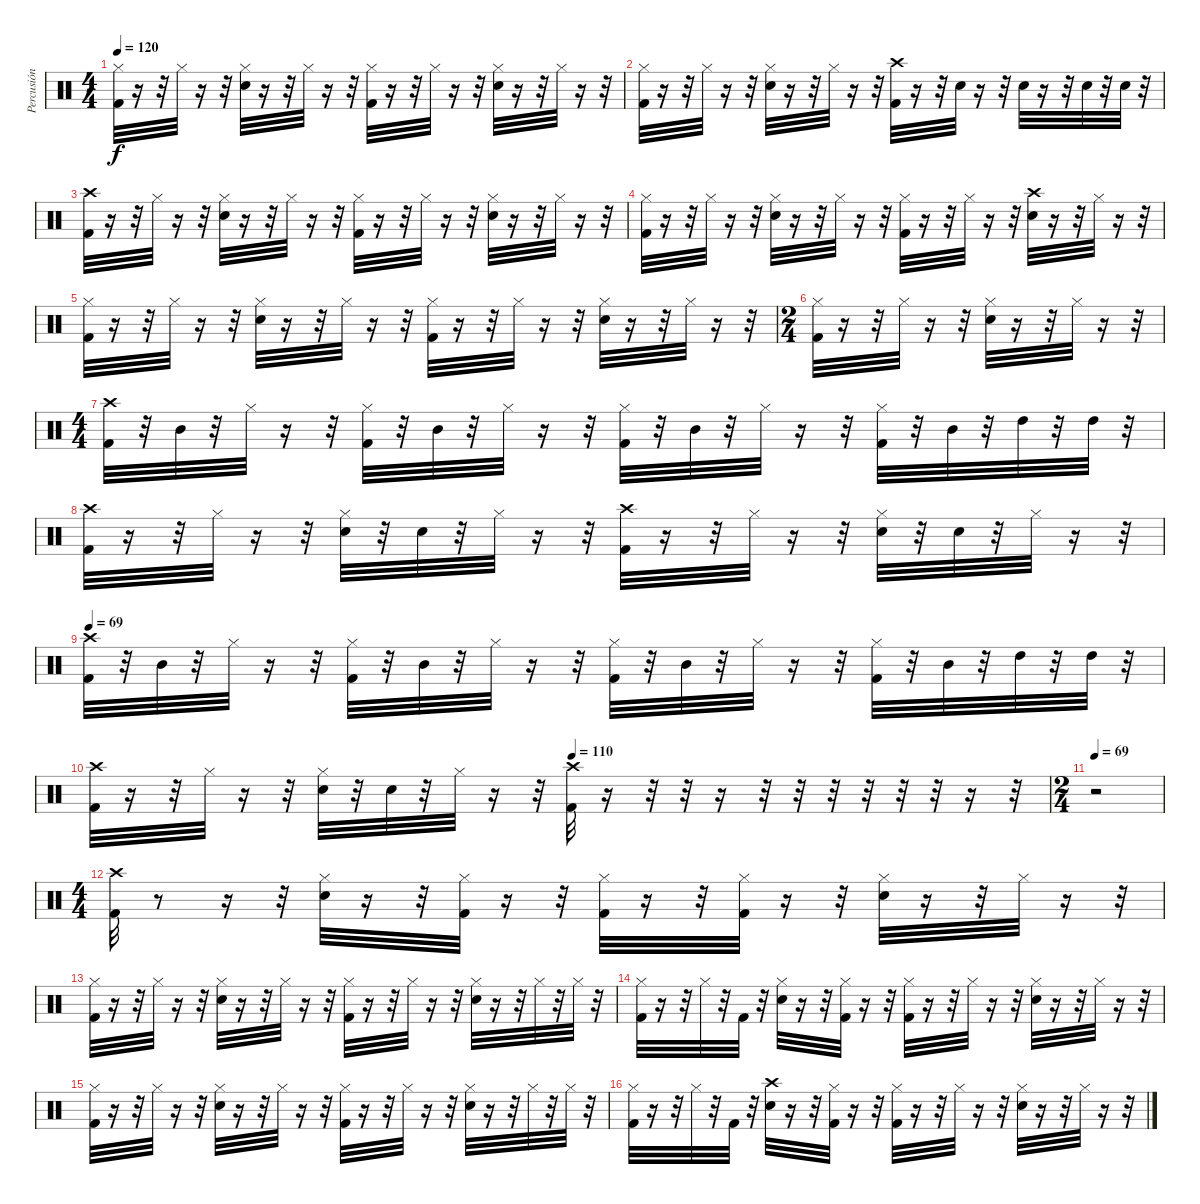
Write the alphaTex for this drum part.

\track ("Percusión" "Percusión") {instrument percussion}
\staff {score}
\articulation defaults
\ts (4 4)
\tempo 120
\clef neutral
\ks c
("Hi-Hat (closed)" "Kick (hit) 2").32{dy f} r.16 r.32 "Hi-Hat (closed)".32 r.16 r.32 ("Snare (hit) 2" "Hi-Hat (closed)").32 r.16 r.32 "Hi-Hat (closed)".32 r.16 r.32 ("Hi-Hat (closed)" "Kick (hit) 2").32 r.16 r.32 "Hi-Hat (closed)".32 r.16 r.32 ("Snare (hit) 2" "Hi-Hat (closed)").32 r.16 r.32 "Hi-Hat (closed)".32 r.16 r.32 |
("Kick (hit) 2" "Hi-Hat (closed)").32 r.16 r.32 "Hi-Hat (closed)".32 r.16 r.32 ("Snare (hit) 2" "Hi-Hat (closed)").32 r.16 r.32 "Hi-Hat (closed)".32 r.16 r.32 ("Crash high (hit)" "Kick (hit) 2").32 r.16 r.32 "Snare (hit) 2".32 r.16 r.32 "Snare (hit) 2".32 r.16 r.32 "Snare (hit) 2".32 r.32 "Snare (hit) 2".32 r.32 |
("Kick (hit) 2" "Crash high (hit)").32 r.16 r.32 "Hi-Hat (closed)".32 r.16 r.32 ("Snare (hit) 2" "Hi-Hat (closed)").32 r.16 r.32 "Hi-Hat (closed)".32 r.16 r.32 ("Hi-Hat (closed)" "Kick (hit) 2").32 r.16 r.32 "Hi-Hat (closed)".32 r.16 r.32 ("Snare (hit) 2" "Hi-Hat (closed)").32 r.16 r.32 "Hi-Hat (closed)".32 r.16 r.32 |
("Kick (hit) 2" "Hi-Hat (closed)").32 r.16 r.32 "Hi-Hat (closed)".32 r.16 r.32 ("Snare (hit) 2" "Hi-Hat (closed)").32 r.16 r.32 "Hi-Hat (closed)".32 r.16 r.32 ("Hi-Hat (closed)" "Kick (hit) 2").32 r.16 r.32 "Hi-Hat (closed)".32 r.16 r.32 ("Crash high (hit)" "Snare (hit) 2").32 r.16 r.32 "Hi-Hat (closed)".32 r.16 r.32 |
("Kick (hit) 2" "Hi-Hat (closed)").32 r.16 r.32 "Hi-Hat (closed)".32 r.16 r.32 ("Snare (hit) 2" "Hi-Hat (closed)").32 r.16 r.32 "Hi-Hat (closed)".32 r.16 r.32 ("Kick (hit) 2" "Hi-Hat (closed)").32 r.16 r.32 "Hi-Hat (closed)".32 r.16 r.32 ("Snare (hit) 2" "Hi-Hat (closed)").32 r.16 r.32 "Hi-Hat (closed)".32 r.16 r.32 |
\ts (2 4)
("Kick (hit) 2" "Hi-Hat (closed)").32 r.16 r.32 "Hi-Hat (closed)".32 r.16 r.32 ("Snare (hit) 2" "Hi-Hat (closed)").32 r.16 r.32 "Hi-Hat (closed)".32 r.16 r.32 |
\ts (4 4)
("Kick (hit) 2" "Crash high (hit)").32 r.32 "Mid Tom (hit)".32 r.32 "Hi-Hat (closed)".32 r.16 r.32 ("Hi-Hat (closed)" "Kick (hit) 2").32 r.32 "Mid Tom (hit)".32 r.32 "Hi-Hat (closed)".32 r.16 r.32 ("Hi-Hat (closed)" "Kick (hit) 2").32 r.32 "Mid Tom (hit)".32 r.32 "Hi-Hat (closed)".32 r.16 r.32 ("Hi-Hat (closed)" "Kick (hit) 2").32 r.32 "Mid Tom (hit)".32 r.32 "High Tom (hit)".32 r.32 "High Tom (hit)".32 r.32 |
("Kick (hit) 2" "Crash high (hit)").32 r.16 r.32 "Hi-Hat (closed)".32 r.16 r.32 ("Snare (hit) 2" "Hi-Hat (closed)").32 r.32 "Snare (hit) 2".32 r.32 "Hi-Hat (closed)".32 r.16 r.32 ("Crash high (hit)" "Kick (hit) 2").32 r.16 r.32 "Hi-Hat (closed)".32 r.16 r.32 ("Snare (hit) 2" "Hi-Hat (closed)").32 r.32 "Snare (hit) 2".32 r.32 "Hi-Hat (closed)".32 r.16 r.32 |
\tempo 69
("Kick (hit) 2" "Crash high (hit)").32 r.32 "Mid Tom (hit)".32 r.32 "Hi-Hat (closed)".32 r.16 r.32 ("Hi-Hat (closed)" "Kick (hit) 2").32 r.32 "Mid Tom (hit)".32 r.32 "Hi-Hat (closed)".32 r.16 r.32 ("Hi-Hat (closed)" "Kick (hit) 2").32 r.32 "Mid Tom (hit)".32 r.32 "Hi-Hat (closed)".32 r.16 r.32 ("Hi-Hat (closed)" "Kick (hit) 2").32 r.32 "Mid Tom (hit)".32 r.32 "High Tom (hit)".32 r.32 "High Tom (hit)".32 r.32 |
\tempo (110 0.5)
("Kick (hit) 2" "Crash high (hit)").32 r.16 r.32 "Hi-Hat (closed)".32 r.16 r.32 ("Snare (hit) 2" "Hi-Hat (closed)").32 r.32 "Snare (hit) 2".32 r.32 "Hi-Hat (closed)".32 r.16 r.32 ("Crash high (hit)" "Kick (hit) 2").32 r.16 r.32 r.32 r.16 r.32 r.32 r.32 r.32 r.32 r.32 r.16 r.32 |
\ts (2 4)
\tempo 69
r.2 |
\ts (4 4)
("Kick (hit) 2" "Crash high (hit)").32 r.8 r.16 r.32 ("Hi-Hat (closed)" "Snare (hit) 2").32 r.16 r.32 ("Hi-Hat (closed)" "Kick (hit) 2").32 r.16 r.32 ("Hi-Hat (closed)" "Kick (hit) 2").32 r.16 r.32 ("Hi-Hat (closed)" "Kick (hit) 2").32 r.16 r.32 ("Hi-Hat (closed)" "Snare (hit) 2").32 r.16 r.32 "Hi-Hat (closed)".32 r.16 r.32 |
("Hi-Hat (closed)" "Kick (hit) 2").32 r.16 r.32 "Hi-Hat (closed)".32 r.16 r.32 ("Snare (hit) 2" "Hi-Hat (closed)").32 r.16 r.32 "Hi-Hat (closed)".32 r.16 r.32 ("Hi-Hat (closed)" "Kick (hit) 2").32 r.16 r.32 "Hi-Hat (closed)".32 r.16 r.32 ("Hi-Hat (closed)" "Snare (hit) 2").32 r.16 r.32 "Hi-Hat (closed)".32 r.32 "Hi-Hat (closed)".32 r.32 |
("Hi-Hat (closed)" "Kick (hit) 2").32 r.16 r.32 "Hi-Hat (closed)".32 r.32 "Kick (hit) 2".32 r.32 ("Snare (hit) 2" "Hi-Hat (closed)").32 r.16 r.32 ("Kick (hit) 2" "Hi-Hat (closed)").32 r.16 r.32 ("Hi-Hat (closed)" "Kick (hit) 2").32 r.16 r.32 "Hi-Hat (closed)".32 r.16 r.32 ("Snare (hit) 2" "Hi-Hat (closed)").32 r.16 r.32 "Hi-Hat (closed)".32 r.16 r.32 |
("Hi-Hat (closed)" "Kick (hit) 2").32 r.16 r.32 "Hi-Hat (closed)".32 r.16 r.32 ("Snare (hit) 2" "Hi-Hat (closed)").32 r.16 r.32 "Hi-Hat (closed)".32 r.16 r.32 ("Kick (hit) 2" "Hi-Hat (closed)").32 r.16 r.32 "Hi-Hat (closed)".32 r.16 r.32 ("Hi-Hat (closed)" "Snare (hit) 2").32 r.16 r.32 "Hi-Hat (closed)".32 r.32 "Hi-Hat (closed)".32 r.32 |
("Hi-Hat (closed)" "Kick (hit) 2").32 r.16 r.32 "Hi-Hat (closed)".32 r.32 "Kick (hit) 2".32 r.32 ("Crash high (hit)" "Snare (hit) 2").32 r.16 r.32 ("Hi-Hat (closed)" "Kick (hit) 2").32 r.16 r.32 ("Hi-Hat (closed)" "Kick (hit) 2").32 r.16 r.32 "Hi-Hat (closed)".32 r.16 r.32 ("Snare (hit) 2" "Hi-Hat (closed)").32 r.16 r.32 "Hi-Hat (closed)".32 r.16 r.32
